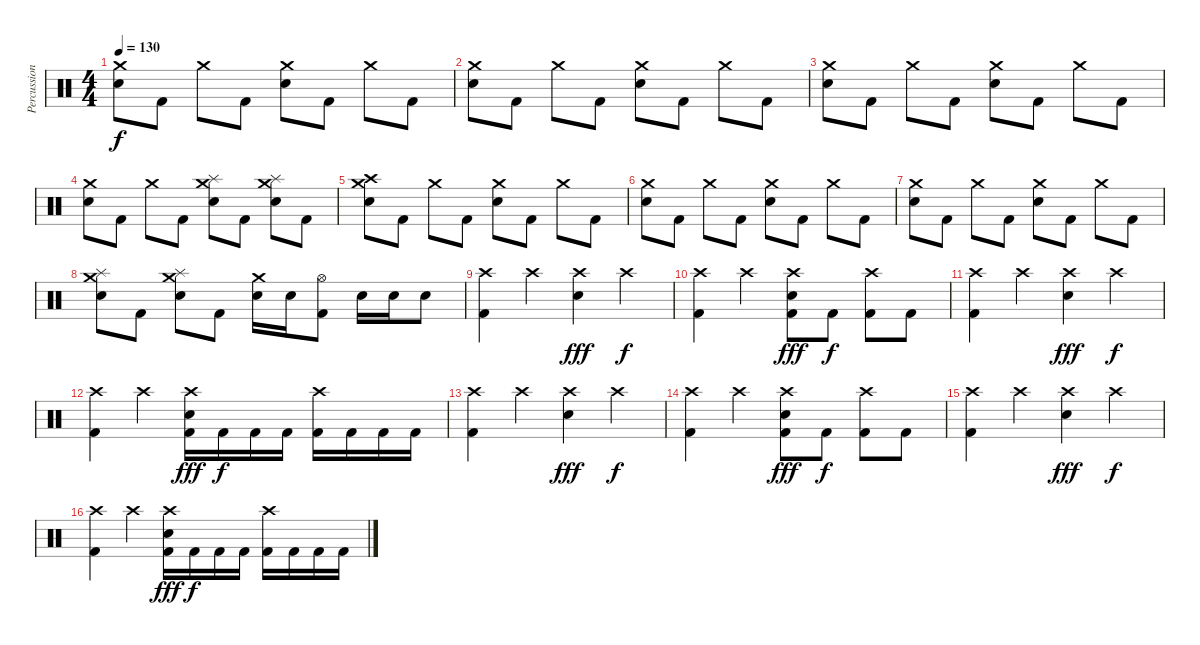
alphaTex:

\track ("Percussion" "Percussion") {instrument percussion}
\staff {score}
\articulation defaults
\ts (4 4)
\tempo 130
\clef neutral
\ks c
("Crash medium (hit)" "Electric Snare (hit)").8{dy f} "Kick (hit) 2".8 "Crash medium (hit)".8 "Kick (hit) 2".8 ("Crash medium (hit)" "Electric Snare (hit)").8 "Kick (hit) 2".8 "Crash medium (hit)".8 "Kick (hit) 2".8 |
("Crash medium (hit)" "Electric Snare (hit)").8 "Kick (hit) 2".8 "Crash medium (hit)".8 "Kick (hit) 2".8 ("Crash medium (hit)" "Electric Snare (hit)").8 "Kick (hit) 2".8 "Crash medium (hit)".8 "Kick (hit) 2".8 |
("Crash medium (hit)" "Electric Snare (hit)").8 "Kick (hit) 2".8 "Crash medium (hit)".8 "Kick (hit) 2".8 ("Crash medium (hit)" "Electric Snare (hit)").8 "Kick (hit) 2".8 "Crash medium (hit)".8 "Kick (hit) 2".8 |
("Crash medium (hit)" "Electric Snare (hit)").8 "Kick (hit) 2".8 "Crash medium (hit)".8 "Kick (hit) 2".8 ("Crash medium (hit)" "Splash (hit)" "Electric Snare (hit)").8 "Kick (hit) 2".8 ("Crash medium (hit)" "Splash (hit)" "Electric Snare (hit)").8 "Kick (hit) 2".8 |
("Crash medium (hit)" "Crash high (hit)" "Electric Snare (hit)").8 "Kick (hit) 2".8 "Crash medium (hit)".8 "Kick (hit) 2".8 ("Crash medium (hit)" "Electric Snare (hit)").8 "Kick (hit) 2".8 "Crash medium (hit)".8 "Kick (hit) 2".8 |
("Crash medium (hit)" "Electric Snare (hit)").8 "Kick (hit) 2".8 "Crash medium (hit)".8 "Kick (hit) 2".8 ("Crash medium (hit)" "Electric Snare (hit)").8 "Kick (hit) 2".8 "Crash medium (hit)".8 "Kick (hit) 2".8 |
("Crash medium (hit)" "Electric Snare (hit)").8 "Kick (hit) 2".8 "Crash medium (hit)".8 "Kick (hit) 2".8 ("Crash medium (hit)" "Electric Snare (hit)").8 "Kick (hit) 2".8 "Crash medium (hit)".8 "Kick (hit) 2".8 |
("Crash medium (hit)" "Splash (hit)" "Electric Snare (hit)").8 "Kick (hit) 2".8 ("Crash medium (hit)" "Splash (hit)" "Electric Snare (hit)").8 "Kick (hit) 2".8 ("Crash medium (hit)" "Electric Snare (hit)").16 "Electric Snare (hit)".16 ("Hi-Hat (open)" "Kick (hit) 2").8 "Electric Snare (hit)".16 "Electric Snare (hit)".16 "Electric Snare (hit)".8 |
("Crash high (hit)" "Kick (hit) 2").4 "Crash high (hit)".4 ("Crash high (hit)" "Electric Snare (hit)").4{dy fff} "Crash high (hit)".4{dy f} |
("Crash high (hit)" "Kick (hit) 2").4 "Crash high (hit)".4 ("Crash high (hit)" "Electric Snare (hit)" "Kick (hit) 2").8{dy fff} "Kick (hit) 2".8{dy f} ("Crash high (hit)" "Kick (hit) 2").8 "Kick (hit) 2".8 |
("Crash high (hit)" "Kick (hit) 2").4 "Crash high (hit)".4 ("Crash high (hit)" "Electric Snare (hit)").4{dy fff} "Crash high (hit)".4{dy f} |
("Crash high (hit)" "Kick (hit) 2").4 "Crash high (hit)".4 ("Crash high (hit)" "Electric Snare (hit)" "Kick (hit) 2").16{dy fff} "Kick (hit) 2".16{dy f} "Kick (hit) 2".16 "Kick (hit) 2".16 ("Crash high (hit)" "Kick (hit) 2").16 "Kick (hit) 2".16 "Kick (hit) 2".16 "Kick (hit) 2".16 |
("Crash high (hit)" "Kick (hit) 2").4 "Crash high (hit)".4 ("Crash high (hit)" "Electric Snare (hit)").4{dy fff} "Crash high (hit)".4{dy f} |
("Crash high (hit)" "Kick (hit) 2").4 "Crash high (hit)".4 ("Crash high (hit)" "Electric Snare (hit)" "Kick (hit) 2").8{dy fff} "Kick (hit) 2".8{dy f} ("Crash high (hit)" "Kick (hit) 2").8 "Kick (hit) 2".8 |
("Crash high (hit)" "Kick (hit) 2").4 "Crash high (hit)".4 ("Crash high (hit)" "Electric Snare (hit)").4{dy fff} "Crash high (hit)".4{dy f} |
("Crash high (hit)" "Kick (hit) 2").4 "Crash high (hit)".4 ("Crash high (hit)" "Electric Snare (hit)" "Kick (hit) 2").16{dy fff} "Kick (hit) 2".16{dy f} "Kick (hit) 2".16 "Kick (hit) 2".16 ("Crash high (hit)" "Kick (hit) 2").16 "Kick (hit) 2".16 "Kick (hit) 2".16 "Kick (hit) 2".16
